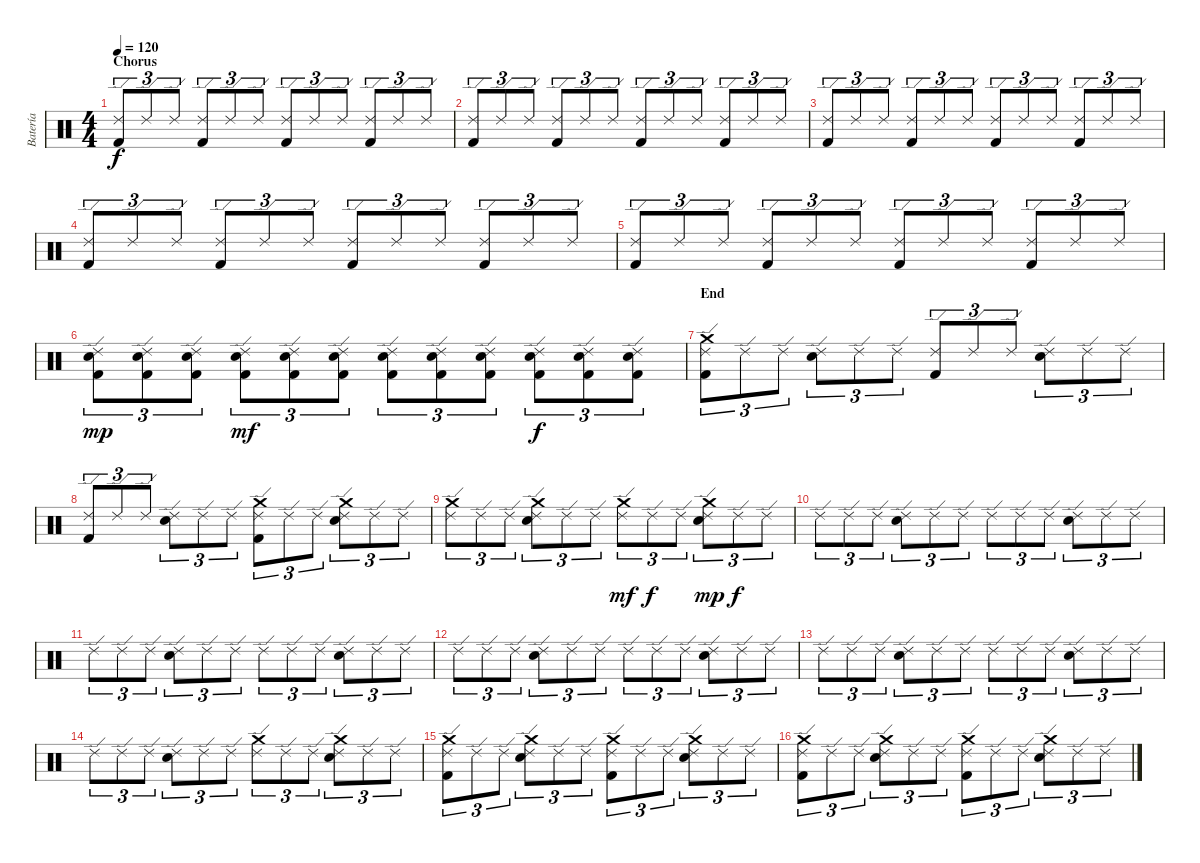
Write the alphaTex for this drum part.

\track ("Batería" "Batería") {instrument percussion}
\staff {score}
\articulation defaults
\ts (4 4)
\section ("" "Chorus")
\tempo 120
\clef neutral
\ks c
("Ride (edge) 2" "Kick (hit) 2").8{tu (3 2) dy f} "Ride (edge) 2".8{tu (3 2)} "Ride (edge) 2".8{tu (3 2)} ("Ride (edge) 2" "Kick (hit) 2").8{tu (3 2)} "Ride (edge) 2".8{tu (3 2)} "Ride (edge) 2".8{tu (3 2)} ("Ride (edge) 2" "Kick (hit) 2").8{tu (3 2)} "Ride (edge) 2".8{tu (3 2)} "Ride (edge) 2".8{tu (3 2)} ("Ride (edge) 2" "Kick (hit) 2").8{tu (3 2)} "Ride (edge) 2".8{tu (3 2)} "Ride (edge) 2".8{tu (3 2)} |
("Ride (edge) 2" "Kick (hit) 2").8{tu (3 2)} "Ride (edge) 2".8{tu (3 2)} "Ride (edge) 2".8{tu (3 2)} ("Ride (edge) 2" "Kick (hit) 2").8{tu (3 2)} "Ride (edge) 2".8{tu (3 2)} "Ride (edge) 2".8{tu (3 2)} ("Ride (edge) 2" "Kick (hit) 2").8{tu (3 2)} "Ride (edge) 2".8{tu (3 2)} "Ride (edge) 2".8{tu (3 2)} ("Ride (edge) 2" "Kick (hit) 2").8{tu (3 2)} "Ride (edge) 2".8{tu (3 2)} "Ride (edge) 2".8{tu (3 2)} |
("Ride (edge) 2" "Kick (hit) 2").8{tu (3 2)} "Ride (edge) 2".8{tu (3 2)} "Ride (edge) 2".8{tu (3 2)} ("Ride (edge) 2" "Kick (hit) 2").8{tu (3 2)} "Ride (edge) 2".8{tu (3 2)} "Ride (edge) 2".8{tu (3 2)} ("Ride (edge) 2" "Kick (hit) 2").8{tu (3 2)} "Ride (edge) 2".8{tu (3 2)} "Ride (edge) 2".8{tu (3 2)} ("Ride (edge) 2" "Kick (hit) 2").8{tu (3 2)} "Ride (edge) 2".8{tu (3 2)} "Ride (edge) 2".8{tu (3 2)} |
("Ride (edge) 2" "Kick (hit) 2").8{tu (3 2)} "Ride (edge) 2".8{tu (3 2)} "Ride (edge) 2".8{tu (3 2)} ("Ride (edge) 2" "Kick (hit) 2").8{tu (3 2)} "Ride (edge) 2".8{tu (3 2)} "Ride (edge) 2".8{tu (3 2)} ("Ride (edge) 2" "Kick (hit) 2").8{tu (3 2)} "Ride (edge) 2".8{tu (3 2)} "Ride (edge) 2".8{tu (3 2)} ("Ride (edge) 2" "Kick (hit) 2").8{tu (3 2)} "Ride (edge) 2".8{tu (3 2)} "Ride (edge) 2".8{tu (3 2)} |
("Ride (edge) 2" "Kick (hit) 2").8{tu (3 2)} "Ride (edge) 2".8{tu (3 2)} "Ride (edge) 2".8{tu (3 2)} ("Ride (edge) 2" "Kick (hit) 2").8{tu (3 2)} "Ride (edge) 2".8{tu (3 2)} "Ride (edge) 2".8{tu (3 2)} ("Ride (edge) 2" "Kick (hit) 2").8{tu (3 2)} "Ride (edge) 2".8{tu (3 2)} "Ride (edge) 2".8{tu (3 2)} ("Ride (edge) 2" "Kick (hit) 2").8{tu (3 2)} "Ride (edge) 2".8{tu (3 2)} "Ride (edge) 2".8{tu (3 2)} |
("Ride (edge) 2" "Electric Snare (hit)" "Kick (hit) 2").8{tu (3 2) dy mp} ("Ride (edge) 2" "Electric Snare (hit)" "Kick (hit) 2").8{tu (3 2)} ("Ride (edge) 2" "Electric Snare (hit)" "Kick (hit) 2").8{tu (3 2)} ("Ride (edge) 2" "Electric Snare (hit)" "Kick (hit) 2").8{tu (3 2) dy mf} ("Ride (edge) 2" "Electric Snare (hit)" "Kick (hit) 2").8{tu (3 2)} ("Ride (edge) 2" "Electric Snare (hit)" "Kick (hit) 2").8{tu (3 2)} ("Ride (edge) 2" "Electric Snare (hit)" "Kick (hit) 2").8{tu (3 2)} ("Ride (edge) 2" "Electric Snare (hit)" "Kick (hit) 2").8{tu (3 2)} ("Ride (edge) 2" "Electric Snare (hit)" "Kick (hit) 2").8{tu (3 2)} ("Ride (edge) 2" "Electric Snare (hit)" "Kick (hit) 2").8{tu (3 2) dy f} ("Ride (edge) 2" "Electric Snare (hit)" "Kick (hit) 2").8{tu (3 2)} ("Ride (edge) 2" "Electric Snare (hit)" "Kick (hit) 2").8{tu (3 2)} |
\section ("" "End")
("Ride (edge) 2" "Kick (hit) 2" "Crash medium (hit)").8{tu (3 2)} "Ride (edge) 2".8{tu (3 2)} "Ride (edge) 2".8{tu (3 2)} ("Ride (edge) 2" "Electric Snare (hit)").8{tu (3 2)} "Ride (edge) 2".8{tu (3 2)} "Ride (edge) 2".8{tu (3 2)} ("Ride (edge) 2" "Kick (hit) 2").8{tu (3 2)} "Ride (edge) 2".8{tu (3 2)} "Ride (edge) 2".8{tu (3 2)} ("Ride (edge) 2" "Electric Snare (hit)").8{tu (3 2)} "Ride (edge) 2".8{tu (3 2)} "Ride (edge) 2".8{tu (3 2)} |
("Ride (edge) 2" "Kick (hit) 2").8{tu (3 2)} "Ride (edge) 2".8{tu (3 2)} "Ride (edge) 2".8{tu (3 2)} ("Ride (edge) 2" "Electric Snare (hit)").8{tu (3 2)} "Ride (edge) 2".8{tu (3 2)} "Ride (edge) 2".8{tu (3 2)} ("Ride (edge) 2" "Kick (hit) 2" "Crash medium (hit)").8{tu (3 2)} "Ride (edge) 2".8{tu (3 2)} "Ride (edge) 2".8{tu (3 2)} ("Ride (edge) 2" "Electric Snare (hit)" "Crash medium (hit)").8{tu (3 2)} "Ride (edge) 2".8{tu (3 2)} "Ride (edge) 2".8{tu (3 2)} |
("Ride (edge) 2" "Crash medium (hit)").8{tu (3 2)} "Ride (edge) 2".8{tu (3 2)} "Ride (edge) 2".8{tu (3 2)} ("Ride (edge) 2" "Electric Snare (hit)" "Crash medium (hit)").8{tu (3 2)} "Ride (edge) 2".8{tu (3 2)} "Ride (edge) 2".8{tu (3 2)} ("Ride (edge) 2" "Crash medium (hit)").8{tu (3 2) dy mf} "Ride (edge) 2".8{tu (3 2) dy f} "Ride (edge) 2".8{tu (3 2)} ("Ride (edge) 2" "Electric Snare (hit)" "Crash medium (hit)").8{tu (3 2) dy mp} "Ride (edge) 2".8{tu (3 2) dy f} "Ride (edge) 2".8{tu (3 2)} |
"Ride (edge) 2".8{tu (3 2)} "Ride (edge) 2".8{tu (3 2)} "Ride (edge) 2".8{tu (3 2)} ("Ride (edge) 2" "Electric Snare (hit)").8{tu (3 2)} "Ride (edge) 2".8{tu (3 2)} "Ride (edge) 2".8{tu (3 2)} "Ride (edge) 2".8{tu (3 2)} "Ride (edge) 2".8{tu (3 2)} "Ride (edge) 2".8{tu (3 2)} ("Ride (edge) 2" "Electric Snare (hit)").8{tu (3 2)} "Ride (edge) 2".8{tu (3 2)} "Ride (edge) 2".8{tu (3 2)} |
"Ride (edge) 2".8{tu (3 2)} "Ride (edge) 2".8{tu (3 2)} "Ride (edge) 2".8{tu (3 2)} ("Ride (edge) 2" "Electric Snare (hit)").8{tu (3 2)} "Ride (edge) 2".8{tu (3 2)} "Ride (edge) 2".8{tu (3 2)} "Ride (edge) 2".8{tu (3 2)} "Ride (edge) 2".8{tu (3 2)} "Ride (edge) 2".8{tu (3 2)} ("Ride (edge) 2" "Electric Snare (hit)").8{tu (3 2)} "Ride (edge) 2".8{tu (3 2)} "Ride (edge) 2".8{tu (3 2)} |
"Ride (edge) 2".8{tu (3 2)} "Ride (edge) 2".8{tu (3 2)} "Ride (edge) 2".8{tu (3 2)} ("Ride (edge) 2" "Electric Snare (hit)").8{tu (3 2)} "Ride (edge) 2".8{tu (3 2)} "Ride (edge) 2".8{tu (3 2)} "Ride (edge) 2".8{tu (3 2)} "Ride (edge) 2".8{tu (3 2)} "Ride (edge) 2".8{tu (3 2)} ("Ride (edge) 2" "Electric Snare (hit)").8{tu (3 2)} "Ride (edge) 2".8{tu (3 2)} "Ride (edge) 2".8{tu (3 2)} |
"Ride (edge) 2".8{tu (3 2)} "Ride (edge) 2".8{tu (3 2)} "Ride (edge) 2".8{tu (3 2)} ("Ride (edge) 2" "Electric Snare (hit)").8{tu (3 2)} "Ride (edge) 2".8{tu (3 2)} "Ride (edge) 2".8{tu (3 2)} "Ride (edge) 2".8{tu (3 2)} "Ride (edge) 2".8{tu (3 2)} "Ride (edge) 2".8{tu (3 2)} ("Ride (edge) 2" "Electric Snare (hit)").8{tu (3 2)} "Ride (edge) 2".8{tu (3 2)} "Ride (edge) 2".8{tu (3 2)} |
"Ride (edge) 2".8{tu (3 2)} "Ride (edge) 2".8{tu (3 2)} "Ride (edge) 2".8{tu (3 2)} ("Ride (edge) 2" "Electric Snare (hit)").8{tu (3 2)} "Ride (edge) 2".8{tu (3 2)} "Ride (edge) 2".8{tu (3 2)} ("Ride (edge) 2" "Crash medium (hit)").8{tu (3 2)} "Ride (edge) 2".8{tu (3 2)} "Ride (edge) 2".8{tu (3 2)} ("Ride (edge) 2" "Electric Snare (hit)" "Crash medium (hit)").8{tu (3 2)} "Ride (edge) 2".8{tu (3 2)} "Ride (edge) 2".8{tu (3 2)} |
("Ride (edge) 2" "Kick (hit) 2" "Crash medium (hit)").8{tu (3 2)} "Ride (edge) 2".8{tu (3 2)} "Ride (edge) 2".8{tu (3 2)} ("Ride (edge) 2" "Electric Snare (hit)" "Crash medium (hit)").8{tu (3 2)} "Ride (edge) 2".8{tu (3 2)} "Ride (edge) 2".8{tu (3 2)} ("Ride (edge) 2" "Kick (hit) 2" "Crash medium (hit)").8{tu (3 2)} "Ride (edge) 2".8{tu (3 2)} "Ride (edge) 2".8{tu (3 2)} ("Ride (edge) 2" "Electric Snare (hit)" "Crash medium (hit)").8{tu (3 2)} "Ride (edge) 2".8{tu (3 2)} "Ride (edge) 2".8{tu (3 2)} |
("Ride (edge) 2" "Kick (hit) 2" "Crash medium (hit)").8{tu (3 2)} "Ride (edge) 2".8{tu (3 2)} "Ride (edge) 2".8{tu (3 2)} ("Ride (edge) 2" "Electric Snare (hit)" "Crash medium (hit)").8{tu (3 2)} "Ride (edge) 2".8{tu (3 2)} "Ride (edge) 2".8{tu (3 2)} ("Ride (edge) 2" "Kick (hit) 2" "Crash medium (hit)").8{tu (3 2)} "Ride (edge) 2".8{tu (3 2)} "Ride (edge) 2".8{tu (3 2)} ("Ride (edge) 2" "Electric Snare (hit)" "Crash medium (hit)").8{tu (3 2)} "Ride (edge) 2".8{tu (3 2)} "Ride (edge) 2".8{tu (3 2)}
